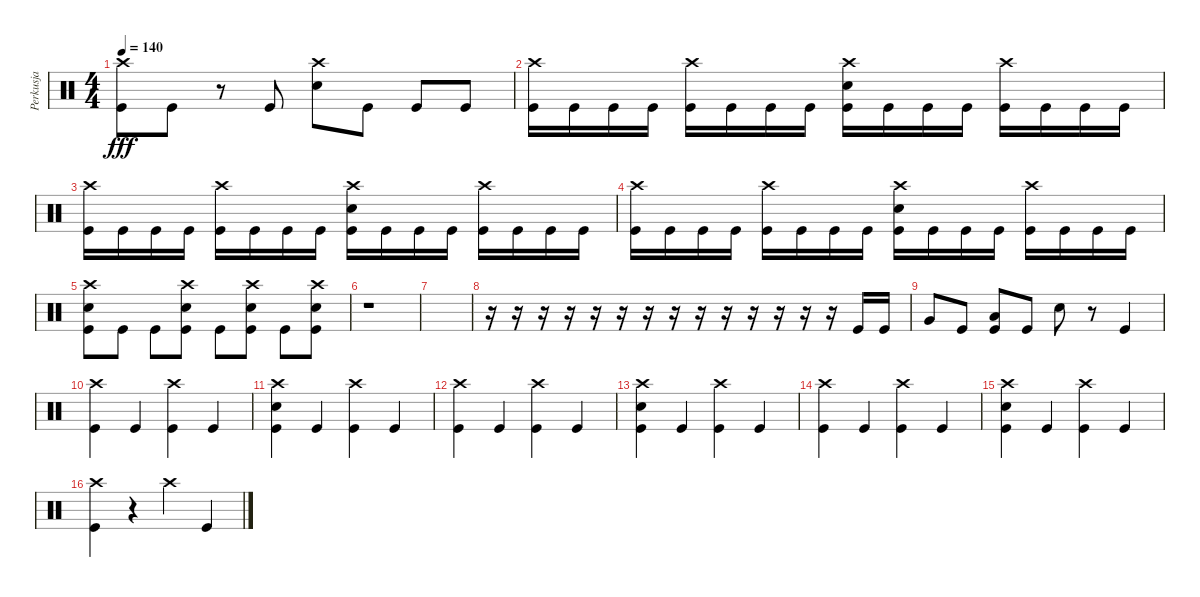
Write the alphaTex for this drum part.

\track ("Perkusja" "Perkusja") {instrument percussion}
\staff {score}
\articulation defaults
\ts (4 4)
\tempo 140
\clef neutral
\ks c
("Crash high (hit)" "Kick (hit)").8{dy fff} "Kick (hit)".8 r.8 "Kick (hit)".8 ("Crash high (hit)" "Electric Snare (hit)").8 "Kick (hit)".8 "Kick (hit)".8 "Kick (hit)".8 |
("Crash high (hit)" "Kick (hit)").16 "Kick (hit)".16 "Kick (hit)".16 "Kick (hit)".16 ("Crash high (hit)" "Kick (hit)").16 "Kick (hit)".16 "Kick (hit)".16 "Kick (hit)".16 ("Crash high (hit)" "Electric Snare (hit)" "Kick (hit)").16 "Kick (hit)".16 "Kick (hit)".16 "Kick (hit)".16 ("Crash high (hit)" "Kick (hit)").16 "Kick (hit)".16 "Kick (hit)".16 "Kick (hit)".16 |
("Crash high (hit)" "Kick (hit)").16 "Kick (hit)".16 "Kick (hit)".16 "Kick (hit)".16 ("Crash high (hit)" "Kick (hit)").16 "Kick (hit)".16 "Kick (hit)".16 "Kick (hit)".16 ("Crash high (hit)" "Electric Snare (hit)" "Kick (hit)").16 "Kick (hit)".16 "Kick (hit)".16 "Kick (hit)".16 ("Crash high (hit)" "Kick (hit)").16 "Kick (hit)".16 "Kick (hit)".16 "Kick (hit)".16 |
("Crash high (hit)" "Kick (hit)").16 "Kick (hit)".16 "Kick (hit)".16 "Kick (hit)".16 ("Crash high (hit)" "Kick (hit)").16 "Kick (hit)".16 "Kick (hit)".16 "Kick (hit)".16 ("Crash high (hit)" "Electric Snare (hit)" "Kick (hit)").16 "Kick (hit)".16 "Kick (hit)".16 "Kick (hit)".16 ("Crash high (hit)" "Kick (hit)").16 "Kick (hit)".16 "Kick (hit)".16 "Kick (hit)".16 |
("Crash high (hit)" "Electric Snare (hit)" "Kick (hit)").8 "Kick (hit)".8 "Kick (hit)".8 ("Crash high (hit)" "Electric Snare (hit)" "Kick (hit)").8 "Kick (hit)".8 ("Crash high (hit)" "Electric Snare (hit)" "Kick (hit)").8 "Kick (hit)".8 ("Crash high (hit)" "Electric Snare (hit)" "Kick (hit)").8 |
r.1 |
|
r.16 r.16 r.16 r.16 r.16 r.16 r.16 r.16 r.16 r.16 r.16 r.16 r.16 r.16 "Kick (hit)".16 "Kick (hit)".16 |
"Very Low Tom (hit)".8 "Kick (hit)".8 ("Low Floor Tom (hit)" "Kick (hit)").8 "Kick (hit)".8 "Electric Snare (hit)".8 r.8 "Kick (hit)".4 |
("Crash high (hit)" "Kick (hit)").4 "Kick (hit)".4 ("Crash high (hit)" "Kick (hit)").4 "Kick (hit)".4 |
("Crash high (hit)" "Electric Snare (hit)" "Kick (hit)").4 "Kick (hit)".4 ("Crash high (hit)" "Kick (hit)").4 "Kick (hit)".4 |
("Crash high (hit)" "Kick (hit)").4 "Kick (hit)".4 ("Crash high (hit)" "Kick (hit)").4 "Kick (hit)".4 |
("Crash high (hit)" "Electric Snare (hit)" "Kick (hit)").4 "Kick (hit)".4 ("Crash high (hit)" "Kick (hit)").4 "Kick (hit)".4 |
("Crash high (hit)" "Kick (hit)").4 "Kick (hit)".4 ("Crash high (hit)" "Kick (hit)").4 "Kick (hit)".4 |
("Crash high (hit)" "Electric Snare (hit)" "Kick (hit)").4 "Kick (hit)".4 ("Crash high (hit)" "Kick (hit)").4 "Kick (hit)".4 |
("Crash high (hit)" "Kick (hit)").4 r.4 "Crash high (hit)".4 "Kick (hit)".4
